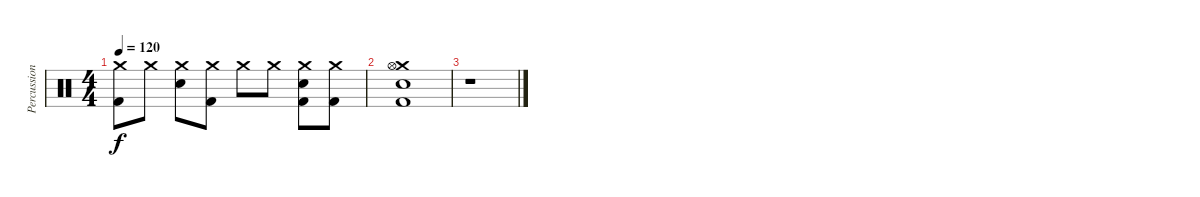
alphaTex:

\track ("Percussion" "Percussion") {instrument percussion}
\staff {score}
\articulation defaults
\ts (4 4)
\tempo 120
\clef neutral
\ks c
("Crash medium (hit)" "Kick (hit) 2").8{dy f} "Crash medium (hit)".8 ("Crash medium (hit)" "Electric Snare (hit)").8 ("Crash medium (hit)" "Kick (hit) 2").8 "Crash medium (hit)".8 "Crash medium (hit)".8 ("Crash medium (hit)" "Electric Snare (hit)" "Kick (hit) 2").8 ("Crash medium (hit)" "Kick (hit) 2").8 |
("Crash medium (hit)" "Hi-Hat (open)" "Electric Snare (hit)" "Kick (hit) 2").1 |
r.1
